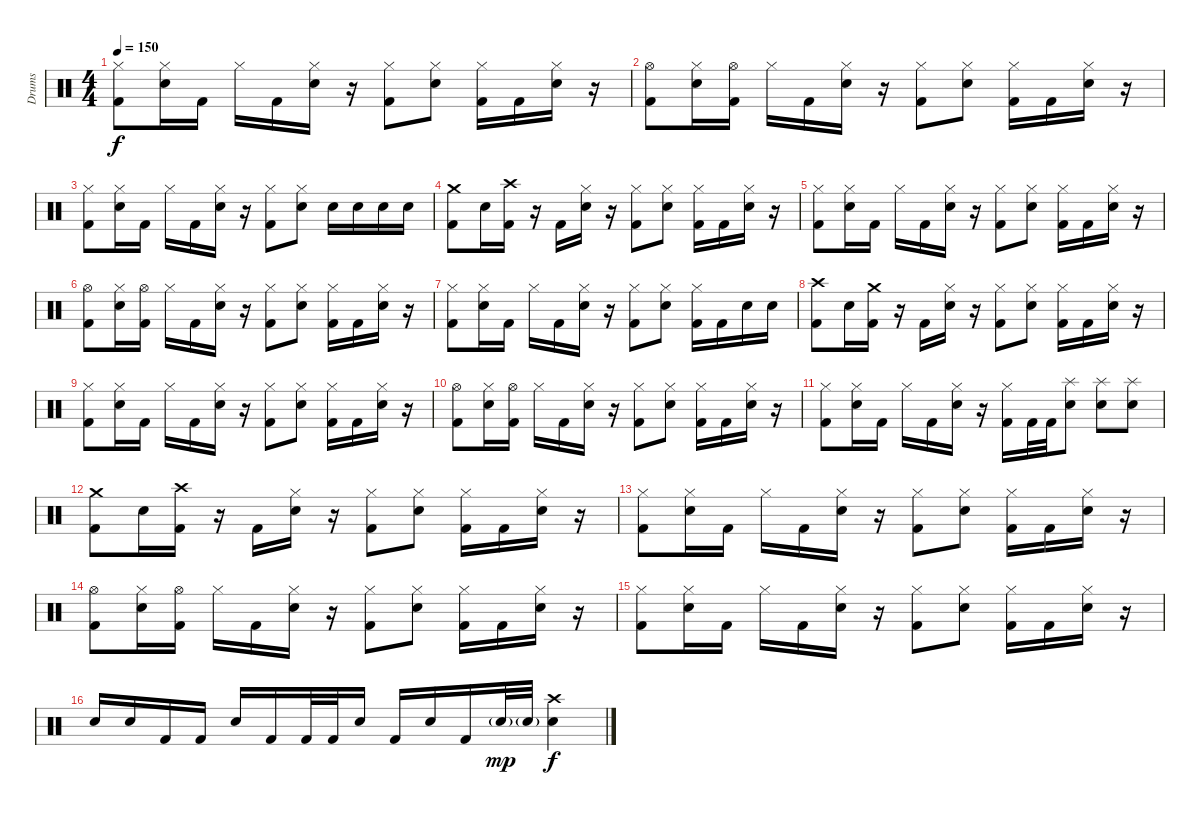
\track ("Drums" "Drums") {instrument percussion}
\staff {score}
\articulation defaults
\ts (4 4)
\tempo 150
\clef neutral
\ks c
("Hi-Hat (closed)" "Kick (hit) 2").8{dy f} ("Hi-Hat (closed)" "Snare (hit) 2").16 "Kick (hit) 2".16 "Hi-Hat (closed)".16 "Kick (hit) 2".16 ("Hi-Hat (closed)" "Snare (hit) 2").16 r.16 ("Hi-Hat (closed)" "Kick (hit) 2").8 ("Hi-Hat (closed)" "Snare (hit) 2").8 ("Hi-Hat (closed)" "Kick (hit) 2").16 "Kick (hit) 2".16 ("Hi-Hat (closed)" "Snare (hit) 2").16 r.16 |
("Hi-Hat (open)" "Kick (hit) 2").8 ("Hi-Hat (closed)" "Snare (hit) 2").16 ("Hi-Hat (open)" "Kick (hit) 2").16 "Hi-Hat (closed)".16 "Kick (hit) 2".16 ("Hi-Hat (closed)" "Snare (hit) 2").16 r.16 ("Hi-Hat (closed)" "Kick (hit) 2").8 ("Hi-Hat (closed)" "Snare (hit) 2").8 ("Hi-Hat (closed)" "Kick (hit) 2").16 "Kick (hit) 2".16 ("Hi-Hat (closed)" "Snare (hit) 2").16 r.16 |
("Hi-Hat (closed)" "Kick (hit) 2").8 ("Hi-Hat (closed)" "Snare (hit) 2").16 "Kick (hit) 2".16 "Hi-Hat (closed)".16 "Kick (hit) 2".16 ("Hi-Hat (closed)" "Snare (hit) 2").16 r.16 ("Hi-Hat (closed)" "Kick (hit) 2").8 ("Hi-Hat (closed)" "Snare (hit) 2").8 "Snare (hit) 2".16 "Snare (hit) 2".16 "Snare (hit) 2".16 "Snare (hit) 2".16 |
("Crash medium (hit)" "Kick (hit) 2").8 "Snare (hit) 2".16 ("Crash high (hit)" "Kick (hit) 2").16 r.16 "Kick (hit) 2".16 ("Hi-Hat (closed)" "Snare (hit) 2").16 r.16 ("Hi-Hat (closed)" "Kick (hit) 2").8 ("Hi-Hat (closed)" "Snare (hit) 2").8 ("Hi-Hat (closed)" "Kick (hit) 2").16 "Kick (hit) 2".16 ("Hi-Hat (closed)" "Snare (hit) 2").16 r.16 |
("Hi-Hat (closed)" "Kick (hit) 2").8 ("Hi-Hat (closed)" "Snare (hit) 2").16 "Kick (hit) 2".16 "Hi-Hat (closed)".16 "Kick (hit) 2".16 ("Hi-Hat (closed)" "Snare (hit) 2").16 r.16 ("Hi-Hat (closed)" "Kick (hit) 2").8 ("Hi-Hat (closed)" "Snare (hit) 2").8 ("Hi-Hat (closed)" "Kick (hit) 2").16 "Kick (hit) 2".16 ("Hi-Hat (closed)" "Snare (hit) 2").16 r.16 |
("Hi-Hat (open)" "Kick (hit) 2").8 ("Hi-Hat (closed)" "Snare (hit) 2").16 ("Hi-Hat (open)" "Kick (hit) 2").16 "Hi-Hat (closed)".16 "Kick (hit) 2".16 ("Hi-Hat (closed)" "Snare (hit) 2").16 r.16 ("Hi-Hat (closed)" "Kick (hit) 2").8 ("Hi-Hat (closed)" "Snare (hit) 2").8 ("Hi-Hat (closed)" "Kick (hit) 2").16 "Kick (hit) 2".16 ("Hi-Hat (closed)" "Snare (hit) 2").16 r.16 |
("Hi-Hat (closed)" "Kick (hit) 2").8 ("Hi-Hat (closed)" "Snare (hit) 2").16 "Kick (hit) 2".16 "Hi-Hat (closed)".16 "Kick (hit) 2".16 ("Hi-Hat (closed)" "Snare (hit) 2").16 r.16 ("Hi-Hat (closed)" "Kick (hit) 2").8 ("Hi-Hat (closed)" "Snare (hit) 2").8 ("Hi-Hat (closed)" "Kick (hit) 2").16 "Kick (hit) 2".16 "Snare (hit) 2".16 "Snare (hit) 2".16 |
("Crash high (hit)" "Kick (hit) 2").8 "Snare (hit) 2".16 ("Crash medium (hit)" "Kick (hit) 2").16 r.16 "Kick (hit) 2".16 ("Hi-Hat (closed)" "Snare (hit) 2").16 r.16 ("Hi-Hat (closed)" "Kick (hit) 2").8 ("Hi-Hat (closed)" "Snare (hit) 2").8 ("Hi-Hat (closed)" "Kick (hit) 2").16 "Kick (hit) 2".16 ("Hi-Hat (closed)" "Snare (hit) 2").16 r.16 |
("Hi-Hat (closed)" "Kick (hit) 2").8 ("Hi-Hat (closed)" "Snare (hit) 2").16 "Kick (hit) 2".16 "Hi-Hat (closed)".16 "Kick (hit) 2".16 ("Hi-Hat (closed)" "Snare (hit) 2").16 r.16 ("Hi-Hat (closed)" "Kick (hit) 2").8 ("Hi-Hat (closed)" "Snare (hit) 2").8 ("Hi-Hat (closed)" "Kick (hit) 2").16 "Kick (hit) 2".16 ("Hi-Hat (closed)" "Snare (hit) 2").16 r.16 |
("Hi-Hat (open)" "Kick (hit) 2").8 ("Hi-Hat (closed)" "Snare (hit) 2").16 ("Hi-Hat (open)" "Kick (hit) 2").16 "Hi-Hat (closed)".16 "Kick (hit) 2".16 ("Hi-Hat (closed)" "Snare (hit) 2").16 r.16 ("Hi-Hat (closed)" "Kick (hit) 2").8 ("Hi-Hat (closed)" "Snare (hit) 2").8 ("Hi-Hat (closed)" "Kick (hit) 2").16 "Kick (hit) 2".16 ("Hi-Hat (closed)" "Snare (hit) 2").16 r.16 |
("Hi-Hat (closed)" "Kick (hit) 2").8 ("Hi-Hat (closed)" "Snare (hit) 2").16 "Kick (hit) 2".16 "Hi-Hat (closed)".16 "Kick (hit) 2".16 ("Hi-Hat (closed)" "Snare (hit) 2").16 r.16 ("Hi-Hat (closed)" "Kick (hit) 2").16 "Kick (hit) 2".32 "Kick (hit) 2".32 ("Splash (hit)" "Snare (hit) 2").8 ("Splash (hit)" "Snare (hit) 2").8 ("Splash (hit)" "Snare (hit) 2").8 |
("Crash medium (hit)" "Kick (hit) 2").8 "Snare (hit) 2".16 ("Crash high (hit)" "Kick (hit) 2").16 r.16 "Kick (hit) 2".16 ("Hi-Hat (closed)" "Snare (hit) 2").16 r.16 ("Hi-Hat (closed)" "Kick (hit) 2").8 ("Hi-Hat (closed)" "Snare (hit) 2").8 ("Hi-Hat (closed)" "Kick (hit) 2").16 "Kick (hit) 2".16 ("Hi-Hat (closed)" "Snare (hit) 2").16 r.16 |
("Hi-Hat (closed)" "Kick (hit) 2").8 ("Hi-Hat (closed)" "Snare (hit) 2").16 "Kick (hit) 2".16 "Hi-Hat (closed)".16 "Kick (hit) 2".16 ("Hi-Hat (closed)" "Snare (hit) 2").16 r.16 ("Hi-Hat (closed)" "Kick (hit) 2").8 ("Hi-Hat (closed)" "Snare (hit) 2").8 ("Hi-Hat (closed)" "Kick (hit) 2").16 "Kick (hit) 2".16 ("Hi-Hat (closed)" "Snare (hit) 2").16 r.16 |
("Hi-Hat (open)" "Kick (hit) 2").8 ("Hi-Hat (closed)" "Snare (hit) 2").16 ("Hi-Hat (open)" "Kick (hit) 2").16 "Hi-Hat (closed)".16 "Kick (hit) 2".16 ("Hi-Hat (closed)" "Snare (hit) 2").16 r.16 ("Hi-Hat (closed)" "Kick (hit) 2").8 ("Hi-Hat (closed)" "Snare (hit) 2").8 ("Hi-Hat (closed)" "Kick (hit) 2").16 "Kick (hit) 2".16 ("Hi-Hat (closed)" "Snare (hit) 2").16 r.16 |
("Hi-Hat (closed)" "Kick (hit) 2").8 ("Hi-Hat (closed)" "Snare (hit) 2").16 "Kick (hit) 2".16 "Hi-Hat (closed)".16 "Kick (hit) 2".16 ("Hi-Hat (closed)" "Snare (hit) 2").16 r.16 ("Hi-Hat (closed)" "Kick (hit) 2").8 ("Hi-Hat (closed)" "Snare (hit) 2").8 ("Hi-Hat (closed)" "Kick (hit) 2").16 "Kick (hit) 2".16 ("Hi-Hat (closed)" "Snare (hit) 2").16 r.16 |
"Snare (hit) 2".16 "Snare (hit) 2".16 "Kick (hit) 2".16 "Kick (hit) 2".16 "Snare (hit) 2".16 "Kick (hit) 2".16 "Kick (hit) 2".32 "Kick (hit) 2".32 "Snare (hit) 2".16 "Kick (hit) 2".16 "Snare (hit) 2".16 "Kick (hit) 2".16 "Snare (hit) 2"{g}.32{dy mp} "Snare (hit) 2"{g}.32 ("Crash high (hit)" "Snare (hit) 2").4{dy f}
